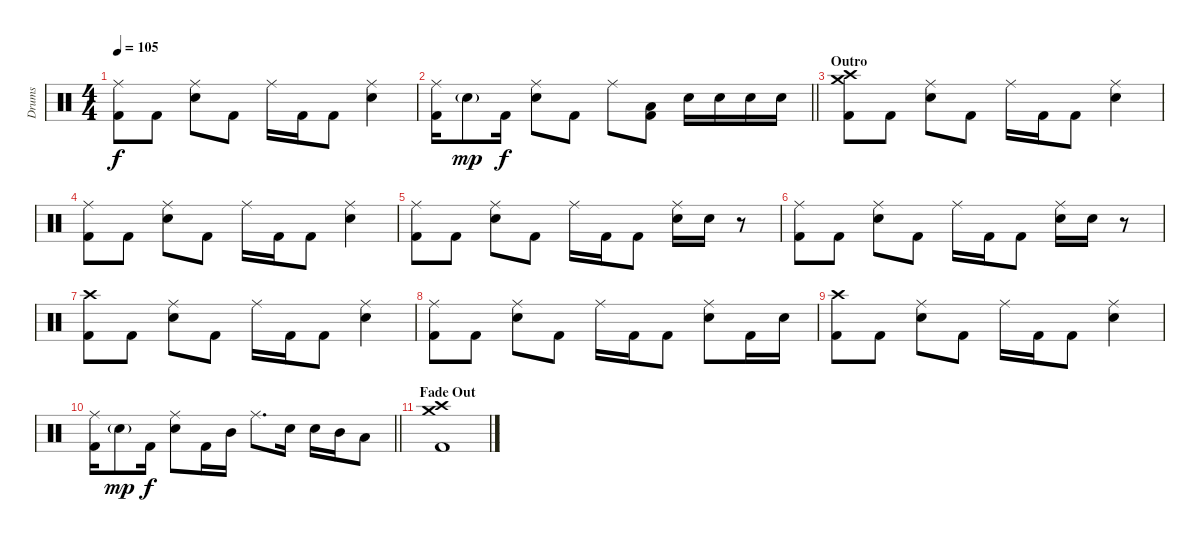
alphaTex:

\track ("Drums" "Drums") {instrument percussion}
\staff {score}
\articulation defaults
\ts (4 4)
\tempo 105
\clef neutral
\ks c
("Ride (middle)" "Kick (hit) 2").8{dy f} "Kick (hit) 2".8 ("Ride (middle)" "Electric Snare (hit)").8 "Kick (hit) 2".8 "Ride (middle)".16 "Kick (hit) 2".16 "Kick (hit) 2".8 ("Ride (middle)" "Electric Snare (hit)").4 |
\barLineRight lightlight
("Ride (middle)" "Kick (hit) 2").16 "Electric Snare (hit)"{g}.8{dy mp} "Kick (hit) 2".16{dy f} ("Ride (middle)" "Electric Snare (hit)").8 "Kick (hit) 2".8 "Ride (middle)".8 ("Low Floor Tom (hit)" "Kick (hit) 2").8 "Electric Snare (hit)".16 "Electric Snare (hit)".16 "Electric Snare (hit)".16 "Electric Snare (hit)".16 |
\section ("" "Outro")
("Crash high (hit)" "Crash medium (hit)" "Kick (hit) 2").8 "Kick (hit) 2".8 ("Ride (middle)" "Electric Snare (hit)").8 "Kick (hit) 2".8 "Ride (middle)".16 "Kick (hit) 2".16 "Kick (hit) 2".8 ("Ride (middle)" "Electric Snare (hit)").4 |
("Ride (middle)" "Kick (hit) 2").8 "Kick (hit) 2".8 ("Ride (middle)" "Electric Snare (hit)").8 "Kick (hit) 2".8 "Ride (middle)".16 "Kick (hit) 2".16 "Kick (hit) 2".8 ("Ride (middle)" "Electric Snare (hit)").4 |
("Ride (middle)" "Kick (hit) 2").8 "Kick (hit) 2".8 ("Ride (middle)" "Electric Snare (hit)").8 "Kick (hit) 2".8 "Ride (middle)".16 "Kick (hit) 2".16 "Kick (hit) 2".8 ("Ride (middle)" "Electric Snare (hit)").16 "Electric Snare (hit)".16 r.8 |
("Ride (middle)" "Kick (hit) 2").8 "Kick (hit) 2".8 ("Ride (middle)" "Electric Snare (hit)").8 "Kick (hit) 2".8 "Ride (middle)".16 "Kick (hit) 2".16 "Kick (hit) 2".8 ("Ride (middle)" "Electric Snare (hit)").16 "Electric Snare (hit)".16 r.8 |
("Crash high (hit)" "Kick (hit) 2").8 "Kick (hit) 2".8 ("Ride (middle)" "Electric Snare (hit)").8 "Kick (hit) 2".8 "Ride (middle)".16 "Kick (hit) 2".16 "Kick (hit) 2".8 ("Ride (middle)" "Electric Snare (hit)").4 |
("Ride (middle)" "Kick (hit) 2").8 "Kick (hit) 2".8 ("Ride (middle)" "Electric Snare (hit)").8 "Kick (hit) 2".8 "Ride (middle)".16 "Kick (hit) 2".16 "Kick (hit) 2".8 ("Ride (middle)" "Electric Snare (hit)").8 "Kick (hit) 2".16 "Electric Snare (hit)".16 |
("Crash high (hit)" "Kick (hit) 2").8 "Kick (hit) 2".8 ("Ride (middle)" "Electric Snare (hit)").8 "Kick (hit) 2".8 "Ride (middle)".16 "Kick (hit) 2".16 "Kick (hit) 2".8 ("Ride (middle)" "Electric Snare (hit)").4 |
\barLineRight lightlight
("Ride (middle)" "Kick (hit) 2").16 "Electric Snare (hit)"{g}.8{dy mp} "Kick (hit) 2".16{dy f} ("Ride (middle)" "Electric Snare (hit)").8 "Kick (hit) 2".16 "Mid Tom (hit)".16 "Ride (middle)".8{d} "Electric Snare (hit)".16 "Electric Snare (hit)".16 "Mid Tom (hit)".16 "Low Tom (hit)".8 |
\section ("" "Fade Out")
("Crash medium (hit)" "Crash high (hit)" "Kick (hit) 2").1{volume 9}
